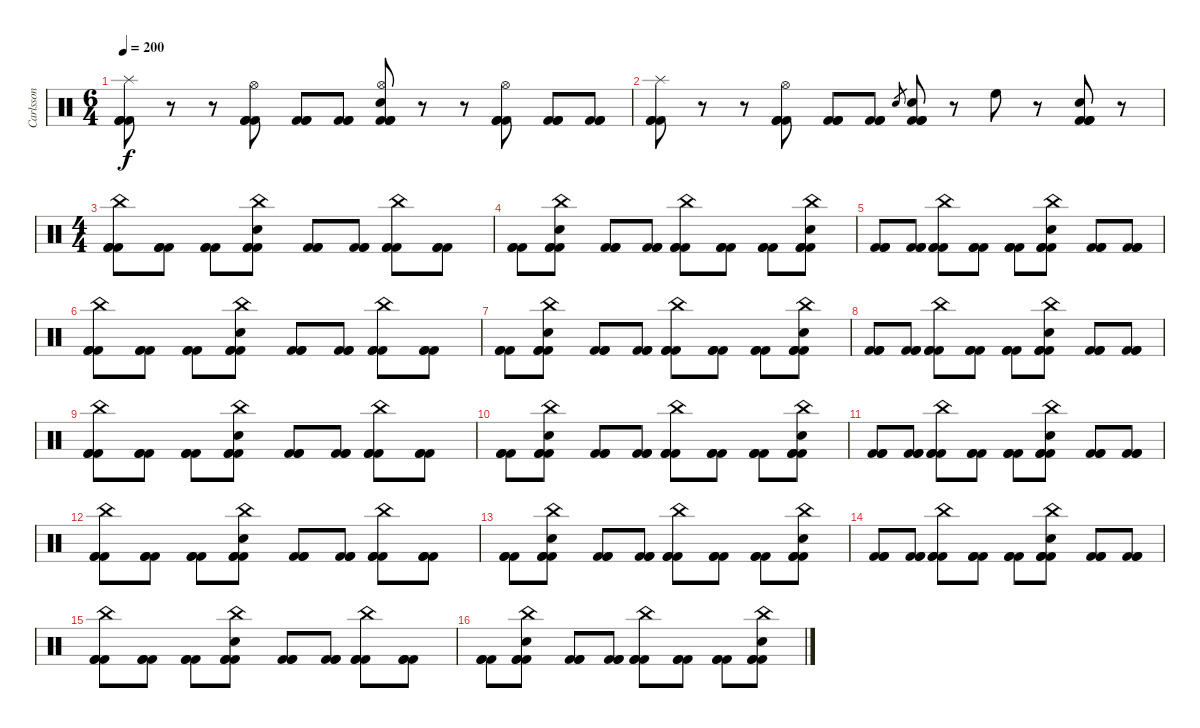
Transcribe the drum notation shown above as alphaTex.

\track ("Carlsson" "Carlsson") {instrument percussion}
\staff {score}
\articulation defaults
\ts (6 4)
\tempo 200
\clef neutral
\ks c
("Splash (hit)" "Kick (hit) 2" "Kick (hit) 2" "Kick (hit) 2").8{dy f} r.8 r.8 ("Hi-Hat (open)" "Kick (hit) 2" "Kick (hit) 2" "Kick (hit) 2").8 ("Kick (hit) 2" "Kick (hit) 2" "Kick (hit) 2").8 ("Kick (hit) 2" "Kick (hit) 2" "Kick (hit) 2").8 ("Hi-Hat (open)" "Snare (hit) 2" "Kick (hit) 2" "Kick (hit) 2" "Kick (hit) 2").8 r.8 r.8 ("Hi-Hat (open)" "Kick (hit) 2" "Kick (hit) 2" "Kick (hit) 2").8 ("Kick (hit) 2" "Kick (hit) 2" "Kick (hit) 2").8 ("Kick (hit) 2" "Kick (hit) 2" "Kick (hit) 2").8 |
("Splash (hit)" "Kick (hit) 2" "Kick (hit) 2" "Kick (hit) 2").8 r.8 r.8 ("Hi-Hat (open)" "Kick (hit) 2" "Kick (hit) 2" "Kick (hit) 2").8 ("Kick (hit) 2" "Kick (hit) 2" "Kick (hit) 2").8 ("Kick (hit) 2" "Kick (hit) 2" "Kick (hit) 2").8 "Snare (hit) 2".8{gr} ("Snare (hit) 2" "Kick (hit) 2" "Kick (hit) 2" "Kick (hit) 2").8 r.8 "High Floor Tom (hit)".8 r.8 ("Snare (hit) 2" "Kick (hit) 2" "Kick (hit) 2" "Kick (hit) 2").8 r.8 |
\ts (4 4)
("China (hit)" "Kick (hit) 2" "Kick (hit) 2" "Kick (hit) 2").8 ("Kick (hit) 2" "Kick (hit) 2" "Kick (hit) 2").8 ("Kick (hit) 2" "Kick (hit) 2" "Kick (hit) 2").8 ("China (hit)" "Snare (hit) 2" "Kick (hit) 2" "Kick (hit) 2" "Kick (hit) 2").8 ("Kick (hit) 2" "Kick (hit) 2" "Kick (hit) 2").8 ("Kick (hit) 2" "Kick (hit) 2" "Kick (hit) 2").8 ("China (hit)" "Kick (hit) 2" "Kick (hit) 2" "Kick (hit) 2").8 ("Kick (hit) 2" "Kick (hit) 2" "Kick (hit) 2").8 |
("Kick (hit) 2" "Kick (hit) 2" "Kick (hit) 2").8 ("China (hit)" "Snare (hit) 2" "Kick (hit) 2" "Kick (hit) 2" "Kick (hit) 2").8 ("Kick (hit) 2" "Kick (hit) 2" "Kick (hit) 2").8 ("Kick (hit) 2" "Kick (hit) 2" "Kick (hit) 2").8 ("China (hit)" "Kick (hit) 2" "Kick (hit) 2" "Kick (hit) 2").8 ("Kick (hit) 2" "Kick (hit) 2" "Kick (hit) 2").8 ("Kick (hit) 2" "Kick (hit) 2" "Kick (hit) 2").8 ("China (hit)" "Snare (hit) 2" "Kick (hit) 2" "Kick (hit) 2" "Kick (hit) 2").8 |
("Kick (hit) 2" "Kick (hit) 2" "Kick (hit) 2").8 ("Kick (hit) 2" "Kick (hit) 2" "Kick (hit) 2").8 ("China (hit)" "Kick (hit) 2" "Kick (hit) 2" "Kick (hit) 2").8 ("Kick (hit) 2" "Kick (hit) 2" "Kick (hit) 2").8 ("Kick (hit) 2" "Kick (hit) 2" "Kick (hit) 2").8 ("China (hit)" "Snare (hit) 2" "Kick (hit) 2" "Kick (hit) 2" "Kick (hit) 2").8 ("Kick (hit) 2" "Kick (hit) 2" "Kick (hit) 2").8 ("Kick (hit) 2" "Kick (hit) 2" "Kick (hit) 2").8 |
("China (hit)" "Kick (hit) 2" "Kick (hit) 2" "Kick (hit) 2").8 ("Kick (hit) 2" "Kick (hit) 2" "Kick (hit) 2").8 ("Kick (hit) 2" "Kick (hit) 2" "Kick (hit) 2").8 ("China (hit)" "Snare (hit) 2" "Kick (hit) 2" "Kick (hit) 2" "Kick (hit) 2").8 ("Kick (hit) 2" "Kick (hit) 2" "Kick (hit) 2").8 ("Kick (hit) 2" "Kick (hit) 2" "Kick (hit) 2").8 ("China (hit)" "Kick (hit) 2" "Kick (hit) 2" "Kick (hit) 2").8 ("Kick (hit) 2" "Kick (hit) 2" "Kick (hit) 2").8 |
("Kick (hit) 2" "Kick (hit) 2" "Kick (hit) 2").8 ("China (hit)" "Snare (hit) 2" "Kick (hit) 2" "Kick (hit) 2" "Kick (hit) 2").8 ("Kick (hit) 2" "Kick (hit) 2" "Kick (hit) 2").8 ("Kick (hit) 2" "Kick (hit) 2" "Kick (hit) 2").8 ("China (hit)" "Kick (hit) 2" "Kick (hit) 2" "Kick (hit) 2").8 ("Kick (hit) 2" "Kick (hit) 2" "Kick (hit) 2").8 ("Kick (hit) 2" "Kick (hit) 2" "Kick (hit) 2").8 ("China (hit)" "Snare (hit) 2" "Kick (hit) 2" "Kick (hit) 2" "Kick (hit) 2").8 |
("Kick (hit) 2" "Kick (hit) 2" "Kick (hit) 2").8 ("Kick (hit) 2" "Kick (hit) 2" "Kick (hit) 2").8 ("China (hit)" "Kick (hit) 2" "Kick (hit) 2" "Kick (hit) 2").8 ("Kick (hit) 2" "Kick (hit) 2" "Kick (hit) 2").8 ("Kick (hit) 2" "Kick (hit) 2" "Kick (hit) 2").8 ("China (hit)" "Snare (hit) 2" "Kick (hit) 2" "Kick (hit) 2" "Kick (hit) 2").8 ("Kick (hit) 2" "Kick (hit) 2" "Kick (hit) 2").8 ("Kick (hit) 2" "Kick (hit) 2" "Kick (hit) 2").8 |
("China (hit)" "Kick (hit) 2" "Kick (hit) 2" "Kick (hit) 2").8 ("Kick (hit) 2" "Kick (hit) 2" "Kick (hit) 2").8 ("Kick (hit) 2" "Kick (hit) 2" "Kick (hit) 2").8 ("China (hit)" "Snare (hit) 2" "Kick (hit) 2" "Kick (hit) 2" "Kick (hit) 2").8 ("Kick (hit) 2" "Kick (hit) 2" "Kick (hit) 2").8 ("Kick (hit) 2" "Kick (hit) 2" "Kick (hit) 2").8 ("China (hit)" "Kick (hit) 2" "Kick (hit) 2" "Kick (hit) 2").8 ("Kick (hit) 2" "Kick (hit) 2" "Kick (hit) 2").8 |
("Kick (hit) 2" "Kick (hit) 2" "Kick (hit) 2").8 ("China (hit)" "Snare (hit) 2" "Kick (hit) 2" "Kick (hit) 2" "Kick (hit) 2").8 ("Kick (hit) 2" "Kick (hit) 2" "Kick (hit) 2").8 ("Kick (hit) 2" "Kick (hit) 2" "Kick (hit) 2").8 ("China (hit)" "Kick (hit) 2" "Kick (hit) 2" "Kick (hit) 2").8 ("Kick (hit) 2" "Kick (hit) 2" "Kick (hit) 2").8 ("Kick (hit) 2" "Kick (hit) 2" "Kick (hit) 2").8 ("China (hit)" "Snare (hit) 2" "Kick (hit) 2" "Kick (hit) 2" "Kick (hit) 2").8 |
("Kick (hit) 2" "Kick (hit) 2" "Kick (hit) 2").8 ("Kick (hit) 2" "Kick (hit) 2" "Kick (hit) 2").8 ("China (hit)" "Kick (hit) 2" "Kick (hit) 2" "Kick (hit) 2").8 ("Kick (hit) 2" "Kick (hit) 2" "Kick (hit) 2").8 ("Kick (hit) 2" "Kick (hit) 2" "Kick (hit) 2").8 ("China (hit)" "Snare (hit) 2" "Kick (hit) 2" "Kick (hit) 2" "Kick (hit) 2").8 ("Kick (hit) 2" "Kick (hit) 2" "Kick (hit) 2").8 ("Kick (hit) 2" "Kick (hit) 2" "Kick (hit) 2").8 |
("China (hit)" "Kick (hit) 2" "Kick (hit) 2" "Kick (hit) 2").8 ("Kick (hit) 2" "Kick (hit) 2" "Kick (hit) 2").8 ("Kick (hit) 2" "Kick (hit) 2" "Kick (hit) 2").8 ("China (hit)" "Snare (hit) 2" "Kick (hit) 2" "Kick (hit) 2" "Kick (hit) 2").8 ("Kick (hit) 2" "Kick (hit) 2" "Kick (hit) 2").8 ("Kick (hit) 2" "Kick (hit) 2" "Kick (hit) 2").8 ("China (hit)" "Kick (hit) 2" "Kick (hit) 2" "Kick (hit) 2").8 ("Kick (hit) 2" "Kick (hit) 2" "Kick (hit) 2").8 |
("Kick (hit) 2" "Kick (hit) 2" "Kick (hit) 2").8 ("China (hit)" "Snare (hit) 2" "Kick (hit) 2" "Kick (hit) 2" "Kick (hit) 2").8 ("Kick (hit) 2" "Kick (hit) 2" "Kick (hit) 2").8 ("Kick (hit) 2" "Kick (hit) 2" "Kick (hit) 2").8 ("China (hit)" "Kick (hit) 2" "Kick (hit) 2" "Kick (hit) 2").8 ("Kick (hit) 2" "Kick (hit) 2" "Kick (hit) 2").8 ("Kick (hit) 2" "Kick (hit) 2" "Kick (hit) 2").8 ("China (hit)" "Snare (hit) 2" "Kick (hit) 2" "Kick (hit) 2" "Kick (hit) 2").8 |
("Kick (hit) 2" "Kick (hit) 2" "Kick (hit) 2").8 ("Kick (hit) 2" "Kick (hit) 2" "Kick (hit) 2").8 ("China (hit)" "Kick (hit) 2" "Kick (hit) 2" "Kick (hit) 2").8 ("Kick (hit) 2" "Kick (hit) 2" "Kick (hit) 2").8 ("Kick (hit) 2" "Kick (hit) 2" "Kick (hit) 2").8 ("China (hit)" "Snare (hit) 2" "Kick (hit) 2" "Kick (hit) 2" "Kick (hit) 2").8 ("Kick (hit) 2" "Kick (hit) 2" "Kick (hit) 2").8 ("Kick (hit) 2" "Kick (hit) 2" "Kick (hit) 2").8 |
("China (hit)" "Kick (hit) 2" "Kick (hit) 2" "Kick (hit) 2").8 ("Kick (hit) 2" "Kick (hit) 2" "Kick (hit) 2").8 ("Kick (hit) 2" "Kick (hit) 2" "Kick (hit) 2").8 ("China (hit)" "Snare (hit) 2" "Kick (hit) 2" "Kick (hit) 2" "Kick (hit) 2").8 ("Kick (hit) 2" "Kick (hit) 2" "Kick (hit) 2").8 ("Kick (hit) 2" "Kick (hit) 2" "Kick (hit) 2").8 ("China (hit)" "Kick (hit) 2" "Kick (hit) 2" "Kick (hit) 2").8 ("Kick (hit) 2" "Kick (hit) 2" "Kick (hit) 2").8 |
("Kick (hit) 2" "Kick (hit) 2" "Kick (hit) 2").8 ("China (hit)" "Snare (hit) 2" "Kick (hit) 2" "Kick (hit) 2" "Kick (hit) 2").8 ("Kick (hit) 2" "Kick (hit) 2" "Kick (hit) 2").8 ("Kick (hit) 2" "Kick (hit) 2" "Kick (hit) 2").8 ("China (hit)" "Kick (hit) 2" "Kick (hit) 2" "Kick (hit) 2").8 ("Kick (hit) 2" "Kick (hit) 2" "Kick (hit) 2").8 ("Kick (hit) 2" "Kick (hit) 2" "Kick (hit) 2").8 ("China (hit)" "Snare (hit) 2" "Kick (hit) 2" "Kick (hit) 2" "Kick (hit) 2").8
